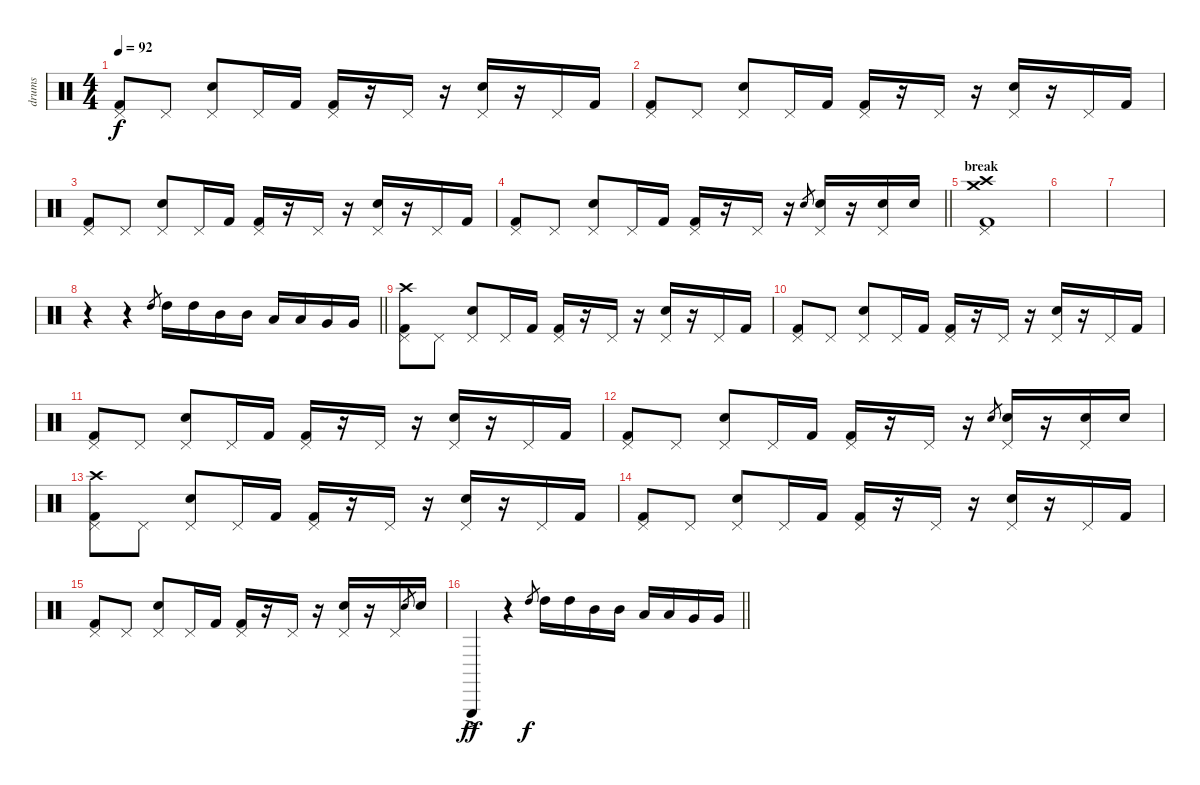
\track ("drums" "drums") {instrument percussion}
\staff {score}
\articulation defaults
\ts (4 4)
\tempo 92
\clef neutral
\ks c
("Kick (hit) 2" "Pedal Hi-Hat (hit)").8{dy f} "Pedal Hi-Hat (hit)".8 ("Electric Snare (hit)" "Pedal Hi-Hat (hit)").8 "Pedal Hi-Hat (hit)".16 "Kick (hit) 2".16 ("Kick (hit) 2" "Pedal Hi-Hat (hit)").16 r.16 "Pedal Hi-Hat (hit)".16 r.16 ("Electric Snare (hit)" "Pedal Hi-Hat (hit)").16 r.16 "Pedal Hi-Hat (hit)".16 "Kick (hit) 2".16 |
("Kick (hit) 2" "Pedal Hi-Hat (hit)").8 "Pedal Hi-Hat (hit)".8 ("Electric Snare (hit)" "Pedal Hi-Hat (hit)").8 "Pedal Hi-Hat (hit)".16 "Kick (hit) 2".16 ("Kick (hit) 2" "Pedal Hi-Hat (hit)").16 r.16 "Pedal Hi-Hat (hit)".16 r.16 ("Electric Snare (hit)" "Pedal Hi-Hat (hit)").16 r.16 "Pedal Hi-Hat (hit)".16 "Kick (hit) 2".16 |
("Kick (hit) 2" "Pedal Hi-Hat (hit)").8 "Pedal Hi-Hat (hit)".8 ("Electric Snare (hit)" "Pedal Hi-Hat (hit)").8 "Pedal Hi-Hat (hit)".16 "Kick (hit) 2".16 ("Kick (hit) 2" "Pedal Hi-Hat (hit)").16 r.16 "Pedal Hi-Hat (hit)".16 r.16 ("Electric Snare (hit)" "Pedal Hi-Hat (hit)").16 r.16 "Pedal Hi-Hat (hit)".16 "Kick (hit) 2".16 |
\barLineRight lightlight
("Kick (hit) 2" "Pedal Hi-Hat (hit)").8 "Pedal Hi-Hat (hit)".8 ("Electric Snare (hit)" "Pedal Hi-Hat (hit)").8 "Pedal Hi-Hat (hit)".16 "Kick (hit) 2".16 ("Kick (hit) 2" "Pedal Hi-Hat (hit)").16 r.16 "Pedal Hi-Hat (hit)".16 r.16 "Electric Snare (hit)".8{gr} ("Electric Snare (hit)" "Pedal Hi-Hat (hit)").16 r.16 ("Electric Snare (hit)" "Pedal Hi-Hat (hit)").16 "Electric Snare (hit)".16 |
\section ("" "break")
("Kick (hit) 2" "Pedal Hi-Hat (hit)" "Crash high (hit)" "Crash medium (hit)").1 |
|
|
\barLineRight lightlight
r.4 r.4 "High Tom (hit)".8{gr} "High Tom (hit)".16 "High Tom (hit)".16 "Mid Tom (hit)".16 "Mid Tom (hit)".16 "Low Tom (hit)".16 "Low Tom (hit)".16 "Very Low Tom (hit)".16 "Very Low Tom (hit)".16 |
("Kick (hit) 2" "Pedal Hi-Hat (hit)" "Crash high (hit)").8 "Pedal Hi-Hat (hit)".8 ("Electric Snare (hit)" "Pedal Hi-Hat (hit)").8 "Pedal Hi-Hat (hit)".16 "Kick (hit) 2".16 ("Kick (hit) 2" "Pedal Hi-Hat (hit)").16 r.16 "Pedal Hi-Hat (hit)".16 r.16 ("Electric Snare (hit)" "Pedal Hi-Hat (hit)").16 r.16 "Pedal Hi-Hat (hit)".16 "Kick (hit) 2".16 |
("Kick (hit) 2" "Pedal Hi-Hat (hit)").8 "Pedal Hi-Hat (hit)".8 ("Electric Snare (hit)" "Pedal Hi-Hat (hit)").8 "Pedal Hi-Hat (hit)".16 "Kick (hit) 2".16 ("Kick (hit) 2" "Pedal Hi-Hat (hit)").16 r.16 "Pedal Hi-Hat (hit)".16 r.16 ("Electric Snare (hit)" "Pedal Hi-Hat (hit)").16 r.16 "Pedal Hi-Hat (hit)".16 "Kick (hit) 2".16 |
("Kick (hit) 2" "Pedal Hi-Hat (hit)").8 "Pedal Hi-Hat (hit)".8 ("Electric Snare (hit)" "Pedal Hi-Hat (hit)").8 "Pedal Hi-Hat (hit)".16 "Kick (hit) 2".16 ("Kick (hit) 2" "Pedal Hi-Hat (hit)").16 r.16 "Pedal Hi-Hat (hit)".16 r.16 ("Electric Snare (hit)" "Pedal Hi-Hat (hit)").16 r.16 "Pedal Hi-Hat (hit)".16 "Kick (hit) 2".16 |
("Kick (hit) 2" "Pedal Hi-Hat (hit)").8 "Pedal Hi-Hat (hit)".8 ("Electric Snare (hit)" "Pedal Hi-Hat (hit)").8 "Pedal Hi-Hat (hit)".16 "Kick (hit) 2".16 ("Kick (hit) 2" "Pedal Hi-Hat (hit)").16 r.16 "Pedal Hi-Hat (hit)".16 r.16 "Electric Snare (hit)".8{gr} ("Electric Snare (hit)" "Pedal Hi-Hat (hit)").16 r.16 ("Electric Snare (hit)" "Pedal Hi-Hat (hit)").16 "Electric Snare (hit)".16 |
("Kick (hit) 2" "Pedal Hi-Hat (hit)" "Crash high (hit)").8 "Pedal Hi-Hat (hit)".8 ("Electric Snare (hit)" "Pedal Hi-Hat (hit)").8 "Pedal Hi-Hat (hit)".16 "Kick (hit) 2".16 ("Kick (hit) 2" "Pedal Hi-Hat (hit)").16 r.16 "Pedal Hi-Hat (hit)".16 r.16 ("Electric Snare (hit)" "Pedal Hi-Hat (hit)").16 r.16 "Pedal Hi-Hat (hit)".16 "Kick (hit) 2".16 |
("Kick (hit) 2" "Pedal Hi-Hat (hit)").8 "Pedal Hi-Hat (hit)".8 ("Electric Snare (hit)" "Pedal Hi-Hat (hit)").8 "Pedal Hi-Hat (hit)".16 "Kick (hit) 2".16 ("Kick (hit) 2" "Pedal Hi-Hat (hit)").16 r.16 "Pedal Hi-Hat (hit)".16 r.16 ("Electric Snare (hit)" "Pedal Hi-Hat (hit)").16 r.16 "Pedal Hi-Hat (hit)".16 "Kick (hit) 2".16 |
("Kick (hit) 2" "Pedal Hi-Hat (hit)").8 "Pedal Hi-Hat (hit)".8 ("Electric Snare (hit)" "Pedal Hi-Hat (hit)").8 "Pedal Hi-Hat (hit)".16 "Kick (hit) 2".16 ("Kick (hit) 2" "Pedal Hi-Hat (hit)").16 r.16 "Pedal Hi-Hat (hit)".16 r.16 ("Electric Snare (hit)" "Pedal Hi-Hat (hit)").16 r.16 "Pedal Hi-Hat (hit)".16 "Electric Snare (hit)".8{gr} "Electric Snare (hit)".16 |
\barLineRight lightlight "Triangle (hit)"{ac}.4{dy ff}
r.4 "High Tom (hit)".8{gr dy f} "High Tom (hit)".16 "High Tom (hit)".16 "Mid Tom (hit)".16 "Mid Tom (hit)".16 "Low Tom (hit)".16 "Low Tom (hit)".16 "Very Low Tom (hit)".16 "Very Low Tom (hit)".16
